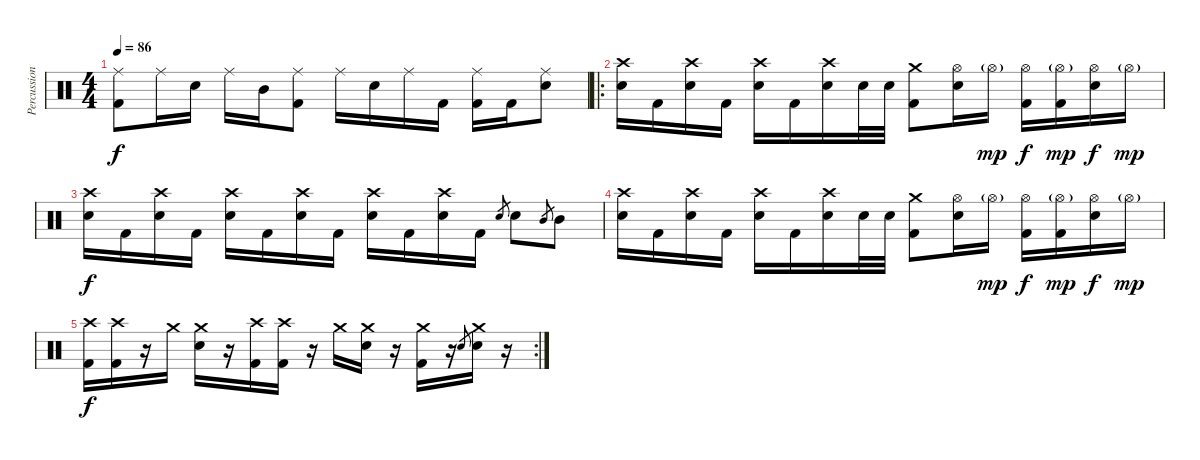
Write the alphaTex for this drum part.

\track ("Percussion" "Percussion") {instrument percussion}
\staff {score}
\articulation defaults
\ts (4 4)
\tempo 86
\clef neutral
\ks c
("Ride (middle)" "Kick (hit) 2").8{dy f} "Ride (middle)".16 "Electric Snare (hit)".16 "Ride (middle)".16 "Mid Tom (hit)".16 ("Ride (middle)" "Kick (hit) 2").8 "Ride (middle)".16 "Electric Snare (hit)".16 "Ride (middle)".16 "Kick (hit) 2".16 ("Ride (middle)" "Kick (hit) 2").16 "Kick (hit) 2".16 ("Ride (middle)" "Electric Snare (hit)").8 |
\ro
("Crash high (hit)" "Electric Snare (hit)").16 "Kick (hit) 2".16 ("Crash high (hit)" "Electric Snare (hit)").16 "Kick (hit) 2".16 ("Crash high (hit)" "Electric Snare (hit)").16 "Kick (hit) 2".16 ("Crash high (hit)" "Electric Snare (hit)").16 "Electric Snare (hit)".32 "Electric Snare (hit)".32 ("Crash medium (hit)" "Kick (hit) 2").8 ("Hi-Hat (open)" "Electric Snare (hit)").16 "Hi-Hat (open)"{g}.16{dy mp} ("Hi-Hat (open)" "Kick (hit) 2").16{dy f} ("Hi-Hat (open)"{g} "Kick (hit) 2").16{dy mp} ("Hi-Hat (open)" "Electric Snare (hit)").16{dy f} "Hi-Hat (open)"{g}.16{dy mp} |
("Crash high (hit)" "Electric Snare (hit)").16{dy f} "Kick (hit) 2".16 ("Crash high (hit)" "Electric Snare (hit)").16 "Kick (hit) 2".16 ("Crash high (hit)" "Electric Snare (hit)").16 "Kick (hit) 2".16 ("Crash high (hit)" "Electric Snare (hit)").16 "Kick (hit) 2".16 ("Crash high (hit)" "Electric Snare (hit)").16 "Kick (hit) 2".16 ("Crash high (hit)" "Electric Snare (hit)").16 "Kick (hit) 2".16 "Electric Snare (hit)".8{gr} "Electric Snare (hit)".8 "Mid Tom (hit)".8{gr} "Mid Tom (hit)".8 |
("Crash high (hit)" "Electric Snare (hit)").16 "Kick (hit) 2".16 ("Crash high (hit)" "Electric Snare (hit)").16 "Kick (hit) 2".16 ("Crash high (hit)" "Electric Snare (hit)").16 "Kick (hit) 2".16 ("Crash high (hit)" "Electric Snare (hit)").16 "Electric Snare (hit)".32 "Electric Snare (hit)".32 ("Crash medium (hit)" "Kick (hit) 2").8 ("Hi-Hat (open)" "Electric Snare (hit)").16 "Hi-Hat (open)"{g}.16{dy mp} ("Hi-Hat (open)" "Kick (hit) 2").16{dy f} ("Hi-Hat (open)"{g} "Kick (hit) 2").16{dy mp} ("Hi-Hat (open)" "Electric Snare (hit)").16{dy f} "Hi-Hat (open)"{g}.16{dy mp} |
\rc 2
("Crash high (hit)" "Kick (hit) 2").16{dy f} ("Crash high (hit)" "Kick (hit) 2").16 r.16 "Crash medium (hit)".16 ("Crash medium (hit)" "Electric Snare (hit)").16 r.16 ("Crash high (hit)" "Kick (hit) 2").16 ("Crash high (hit)" "Kick (hit) 2").16 r.16 "Crash medium (hit)".16 ("Crash medium (hit)" "Electric Snare (hit)").16 r.16 ("Crash medium (hit)" "Kick (hit) 2").16 r.16 "Electric Snare (hit)".8{gr} ("Crash medium (hit)" "Electric Snare (hit)").16 r.16
